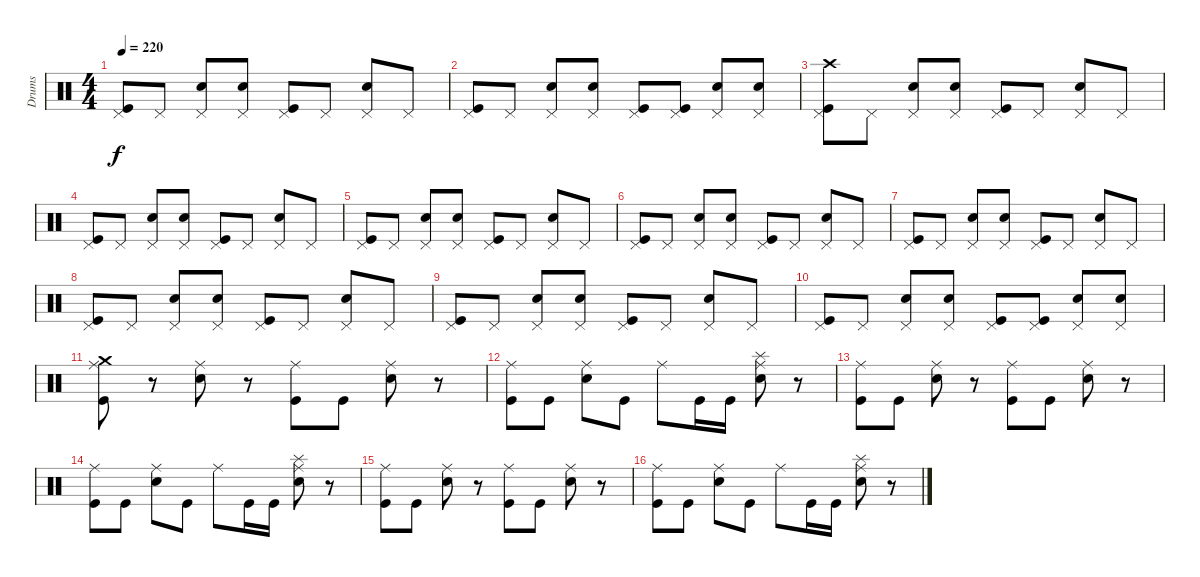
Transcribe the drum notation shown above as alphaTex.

\track ("Drums" "Drums") {instrument percussion}
\staff {score}
\articulation defaults
\ts (4 4)
\tempo 220
\clef neutral
\ks c
("Kick (hit)" "Pedal Hi-Hat (hit)").8{dy f} "Pedal Hi-Hat (hit)".8 ("Electric Snare (hit)" "Pedal Hi-Hat (hit)").8 ("Electric Snare (hit)" "Pedal Hi-Hat (hit)").8 ("Pedal Hi-Hat (hit)" "Kick (hit)").8 "Pedal Hi-Hat (hit)".8 ("Pedal Hi-Hat (hit)" "Electric Snare (hit)").8 "Pedal Hi-Hat (hit)".8 |
("Pedal Hi-Hat (hit)" "Kick (hit)").8 "Pedal Hi-Hat (hit)".8 ("Pedal Hi-Hat (hit)" "Electric Snare (hit)").8 ("Pedal Hi-Hat (hit)" "Electric Snare (hit)").8 ("Kick (hit)" "Pedal Hi-Hat (hit)").8 ("Pedal Hi-Hat (hit)" "Kick (hit)").8 ("Electric Snare (hit)" "Pedal Hi-Hat (hit)").8 ("Electric Snare (hit)" "Pedal Hi-Hat (hit)").8 |
("Crash high (hit)" "Kick (hit)" "Pedal Hi-Hat (hit)").8 "Pedal Hi-Hat (hit)".8 ("Pedal Hi-Hat (hit)" "Electric Snare (hit)").8 ("Pedal Hi-Hat (hit)" "Electric Snare (hit)").8 ("Kick (hit)" "Pedal Hi-Hat (hit)").8 "Pedal Hi-Hat (hit)".8 ("Electric Snare (hit)" "Pedal Hi-Hat (hit)").8 "Pedal Hi-Hat (hit)".8 |
("Pedal Hi-Hat (hit)" "Kick (hit)").8 "Pedal Hi-Hat (hit)".8 ("Pedal Hi-Hat (hit)" "Electric Snare (hit)").8 ("Electric Snare (hit)" "Pedal Hi-Hat (hit)").8 ("Pedal Hi-Hat (hit)" "Kick (hit)").8 "Pedal Hi-Hat (hit)".8 ("Electric Snare (hit)" "Pedal Hi-Hat (hit)").8 "Pedal Hi-Hat (hit)".8 |
("Pedal Hi-Hat (hit)" "Kick (hit)").8 "Pedal Hi-Hat (hit)".8 ("Pedal Hi-Hat (hit)" "Electric Snare (hit)").8 ("Electric Snare (hit)" "Pedal Hi-Hat (hit)").8 ("Pedal Hi-Hat (hit)" "Kick (hit)").8 "Pedal Hi-Hat (hit)".8 ("Electric Snare (hit)" "Pedal Hi-Hat (hit)").8 "Pedal Hi-Hat (hit)".8 |
("Pedal Hi-Hat (hit)" "Kick (hit)").8 "Pedal Hi-Hat (hit)".8 ("Electric Snare (hit)" "Pedal Hi-Hat (hit)").8 ("Pedal Hi-Hat (hit)" "Electric Snare (hit)").8 ("Kick (hit)" "Pedal Hi-Hat (hit)").8 "Pedal Hi-Hat (hit)".8 ("Pedal Hi-Hat (hit)" "Electric Snare (hit)").8 "Pedal Hi-Hat (hit)".8 |
("Kick (hit)" "Pedal Hi-Hat (hit)").8 "Pedal Hi-Hat (hit)".8 ("Pedal Hi-Hat (hit)" "Electric Snare (hit)").8 ("Pedal Hi-Hat (hit)" "Electric Snare (hit)").8 ("Pedal Hi-Hat (hit)" "Kick (hit)").8 "Pedal Hi-Hat (hit)".8 ("Electric Snare (hit)" "Pedal Hi-Hat (hit)").8 "Pedal Hi-Hat (hit)".8 |
("Pedal Hi-Hat (hit)" "Kick (hit)").8 "Pedal Hi-Hat (hit)".8 ("Electric Snare (hit)" "Pedal Hi-Hat (hit)").8 ("Pedal Hi-Hat (hit)" "Electric Snare (hit)").8 ("Kick (hit)" "Pedal Hi-Hat (hit)").8 "Pedal Hi-Hat (hit)".8 ("Pedal Hi-Hat (hit)" "Electric Snare (hit)").8 "Pedal Hi-Hat (hit)".8 |
("Kick (hit)" "Pedal Hi-Hat (hit)").8 "Pedal Hi-Hat (hit)".8 ("Pedal Hi-Hat (hit)" "Electric Snare (hit)").8 ("Pedal Hi-Hat (hit)" "Electric Snare (hit)").8 ("Kick (hit)" "Pedal Hi-Hat (hit)").8 "Pedal Hi-Hat (hit)".8 ("Electric Snare (hit)" "Pedal Hi-Hat (hit)").8 "Pedal Hi-Hat (hit)".8 |
("Kick (hit)" "Pedal Hi-Hat (hit)").8 "Pedal Hi-Hat (hit)".8 ("Pedal Hi-Hat (hit)" "Electric Snare (hit)").8 ("Electric Snare (hit)" "Pedal Hi-Hat (hit)").8 ("Pedal Hi-Hat (hit)" "Kick (hit)").8 ("Pedal Hi-Hat (hit)" "Kick (hit)").8 ("Electric Snare (hit)" "Pedal Hi-Hat (hit)").8 ("Electric Snare (hit)" "Pedal Hi-Hat (hit)").8 |
("Crash medium (hit)" "Kick (hit)" "Ride (middle)").8 r.8 ("Ride (middle)" "Electric Snare (hit)").8 r.8 ("Ride (middle)" "Kick (hit)").8 "Kick (hit)".8 ("Electric Snare (hit)" "Ride (middle)").8 r.8 |
("Kick (hit)" "Ride (middle)").8 "Kick (hit)".8 ("Electric Snare (hit)" "Ride (middle)").8 "Kick (hit)".8 "Ride (middle)".8 "Kick (hit)".16 "Kick (hit)".16 ("Splash (hit)" "Electric Snare (hit)" "Ride (middle)").8 r.8 |
("Kick (hit)" "Ride (middle)").8 "Kick (hit)".8 ("Ride (middle)" "Electric Snare (hit)").8 r.8 ("Ride (middle)" "Kick (hit)").8 "Kick (hit)".8 ("Electric Snare (hit)" "Ride (middle)").8 r.8 |
("Kick (hit)" "Ride (middle)").8 "Kick (hit)".8 ("Electric Snare (hit)" "Ride (middle)").8 "Kick (hit)".8 "Ride (middle)".8 "Kick (hit)".16 "Kick (hit)".16 ("Electric Snare (hit)" "Splash (hit)" "Ride (middle)").8 r.8 |
("Kick (hit)" "Ride (middle)").8 "Kick (hit)".8 ("Ride (middle)" "Electric Snare (hit)").8 r.8 ("Ride (middle)" "Kick (hit)").8 "Kick (hit)".8 ("Ride (middle)" "Electric Snare (hit)").8 r.8 |
("Ride (middle)" "Kick (hit)").8 "Kick (hit)".8 ("Electric Snare (hit)" "Ride (middle)").8 "Kick (hit)".8 "Ride (middle)".8 "Kick (hit)".16 "Kick (hit)".16 ("Splash (hit)" "Electric Snare (hit)" "Ride (middle)").8 r.8
